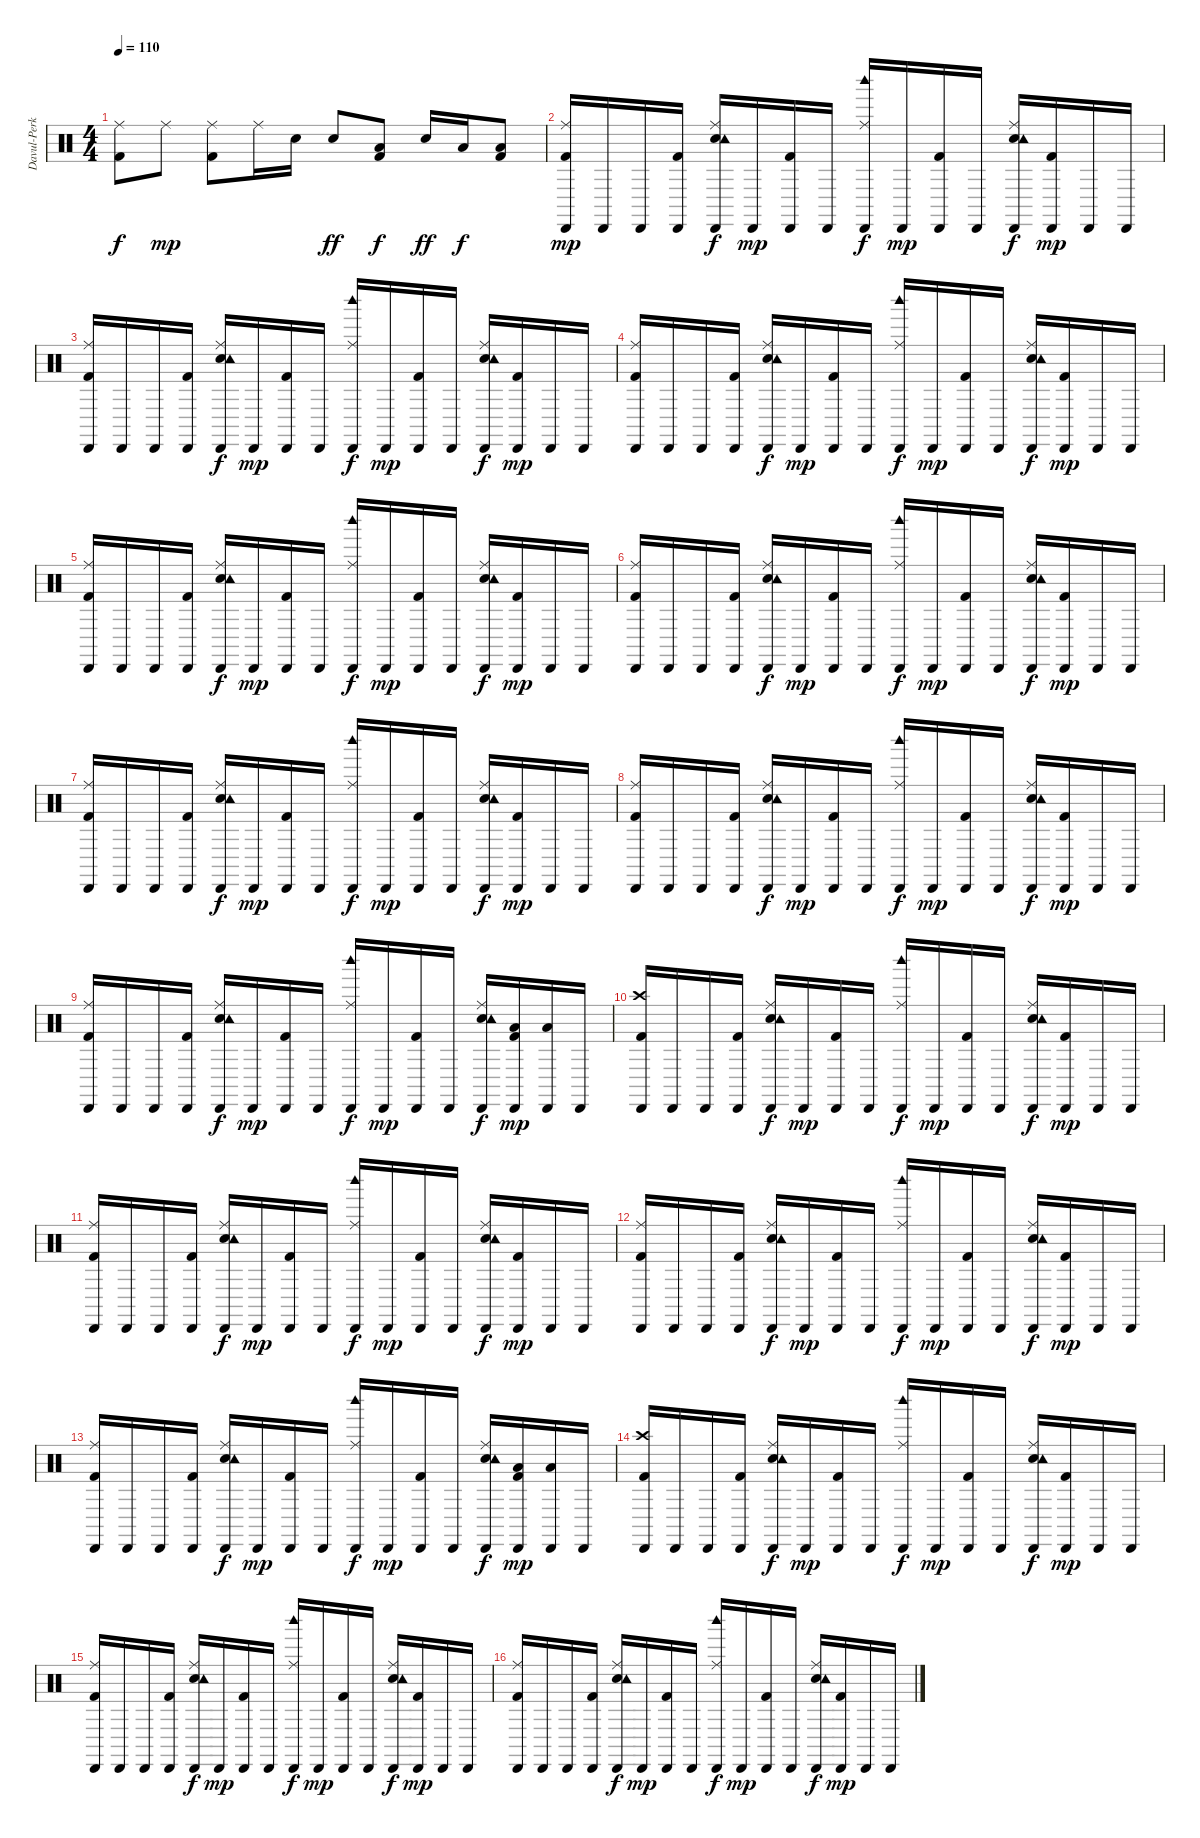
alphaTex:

\track ("Davul-Perküsyon" "Davul-Perk") {instrument percussion}
\staff {score}
\articulation defaults
\ts (4 4)
\tempo 110
\clef neutral
\ks c
("Ride (middle)" "Kick (hit) 2").8{dy f} "Ride (middle)".8{dy mp} ("Ride (middle)" "Kick (hit) 2").8 "Ride (middle)".16 "Electric Snare (hit)".16 "Electric Snare (hit)".8{dy ff} ("Low Tom (hit)" "Kick (hit) 2").8{dy f} "Electric Snare (hit)".16{dy ff} "Low Tom (hit)".16{dy f} ("Low Tom (hit)" "Kick (hit) 2").8 |
("Ride (middle)" "Cabasa (hit)" "Kick (hit) 2").16{dy mp} "Cabasa (hit)".16 "Cabasa (hit)".16 ("Cabasa (hit)" "Kick (hit) 2").16 ("Electric Snare (hit)" "Ride (middle)" "Tambourine (hit)" "Cabasa (hit)").16{dy f} "Cabasa (hit)".16{dy mp} ("Cabasa (hit)" "Kick (hit) 2").16 "Cabasa (hit)".16 ("Ride (middle)" "Woodblock high (hit)" "Cabasa (hit)").16{dy f} "Cabasa (hit)".16{dy mp} ("Cabasa (hit)" "Kick (hit) 2").16 "Cabasa (hit)".16 ("Electric Snare (hit)" "Ride (middle)" "Tambourine (hit)" "Cabasa (hit)").16{dy f} ("Cabasa (hit)" "Kick (hit) 2").16{dy mp} "Cabasa (hit)".16 "Cabasa (hit)".16 |
("Ride (middle)" "Cabasa (hit)" "Kick (hit) 2").16 "Cabasa (hit)".16 "Cabasa (hit)".16 ("Cabasa (hit)" "Kick (hit) 2").16 ("Electric Snare (hit)" "Ride (middle)" "Tambourine (hit)" "Cabasa (hit)").16{dy f} "Cabasa (hit)".16{dy mp} ("Cabasa (hit)" "Kick (hit) 2").16 "Cabasa (hit)".16 ("Ride (middle)" "Woodblock high (hit)" "Cabasa (hit)").16{dy f} "Cabasa (hit)".16{dy mp} ("Cabasa (hit)" "Kick (hit) 2").16 "Cabasa (hit)".16 ("Electric Snare (hit)" "Ride (middle)" "Tambourine (hit)" "Cabasa (hit)").16{dy f} ("Cabasa (hit)" "Kick (hit) 2").16{dy mp} "Cabasa (hit)".16 "Cabasa (hit)".16 |
("Ride (middle)" "Cabasa (hit)" "Kick (hit) 2").16 "Cabasa (hit)".16 "Cabasa (hit)".16 ("Cabasa (hit)" "Kick (hit) 2").16 ("Electric Snare (hit)" "Ride (middle)" "Tambourine (hit)" "Cabasa (hit)").16{dy f} "Cabasa (hit)".16{dy mp} ("Cabasa (hit)" "Kick (hit) 2").16 "Cabasa (hit)".16 ("Ride (middle)" "Woodblock high (hit)" "Cabasa (hit)").16{dy f} "Cabasa (hit)".16{dy mp} ("Cabasa (hit)" "Kick (hit) 2").16 "Cabasa (hit)".16 ("Electric Snare (hit)" "Ride (middle)" "Tambourine (hit)" "Cabasa (hit)").16{dy f} ("Cabasa (hit)" "Kick (hit) 2").16{dy mp} "Cabasa (hit)".16 "Cabasa (hit)".16 |
("Ride (middle)" "Cabasa (hit)" "Kick (hit) 2").16 "Cabasa (hit)".16 "Cabasa (hit)".16 ("Cabasa (hit)" "Kick (hit) 2").16 ("Electric Snare (hit)" "Ride (middle)" "Tambourine (hit)" "Cabasa (hit)").16{dy f} "Cabasa (hit)".16{dy mp} ("Cabasa (hit)" "Kick (hit) 2").16 "Cabasa (hit)".16 ("Ride (middle)" "Woodblock high (hit)" "Cabasa (hit)").16{dy f} "Cabasa (hit)".16{dy mp} ("Cabasa (hit)" "Kick (hit) 2").16 "Cabasa (hit)".16 ("Electric Snare (hit)" "Ride (middle)" "Tambourine (hit)" "Cabasa (hit)").16{dy f} ("Cabasa (hit)" "Kick (hit) 2").16{dy mp} "Cabasa (hit)".16 "Cabasa (hit)".16 |
("Ride (middle)" "Cabasa (hit)" "Kick (hit) 2").16 "Cabasa (hit)".16 "Cabasa (hit)".16 ("Cabasa (hit)" "Kick (hit) 2").16 ("Electric Snare (hit)" "Ride (middle)" "Tambourine (hit)" "Cabasa (hit)").16{dy f} "Cabasa (hit)".16{dy mp} ("Cabasa (hit)" "Kick (hit) 2").16 "Cabasa (hit)".16 ("Ride (middle)" "Woodblock high (hit)" "Cabasa (hit)").16{dy f} "Cabasa (hit)".16{dy mp} ("Cabasa (hit)" "Kick (hit) 2").16 "Cabasa (hit)".16 ("Electric Snare (hit)" "Ride (middle)" "Tambourine (hit)" "Cabasa (hit)").16{dy f} ("Cabasa (hit)" "Kick (hit) 2").16{dy mp} "Cabasa (hit)".16 "Cabasa (hit)".16 |
("Ride (middle)" "Cabasa (hit)" "Kick (hit) 2").16 "Cabasa (hit)".16 "Cabasa (hit)".16 ("Cabasa (hit)" "Kick (hit) 2").16 ("Electric Snare (hit)" "Ride (middle)" "Tambourine (hit)" "Cabasa (hit)").16{dy f} "Cabasa (hit)".16{dy mp} ("Cabasa (hit)" "Kick (hit) 2").16 "Cabasa (hit)".16 ("Ride (middle)" "Woodblock high (hit)" "Cabasa (hit)").16{dy f} "Cabasa (hit)".16{dy mp} ("Cabasa (hit)" "Kick (hit) 2").16 "Cabasa (hit)".16 ("Electric Snare (hit)" "Ride (middle)" "Tambourine (hit)" "Cabasa (hit)").16{dy f} ("Cabasa (hit)" "Kick (hit) 2").16{dy mp} "Cabasa (hit)".16 "Cabasa (hit)".16 |
("Ride (middle)" "Cabasa (hit)" "Kick (hit) 2").16 "Cabasa (hit)".16 "Cabasa (hit)".16 ("Cabasa (hit)" "Kick (hit) 2").16 ("Electric Snare (hit)" "Ride (middle)" "Tambourine (hit)" "Cabasa (hit)").16{dy f} "Cabasa (hit)".16{dy mp} ("Cabasa (hit)" "Kick (hit) 2").16 "Cabasa (hit)".16 ("Ride (middle)" "Woodblock high (hit)" "Cabasa (hit)").16{dy f} "Cabasa (hit)".16{dy mp} ("Cabasa (hit)" "Kick (hit) 2").16 "Cabasa (hit)".16 ("Electric Snare (hit)" "Ride (middle)" "Tambourine (hit)" "Cabasa (hit)").16{dy f} ("Cabasa (hit)" "Kick (hit) 2").16{dy mp} "Cabasa (hit)".16 "Cabasa (hit)".16 |
("Ride (middle)" "Cabasa (hit)" "Kick (hit) 2").16 "Cabasa (hit)".16 "Cabasa (hit)".16 ("Cabasa (hit)" "Kick (hit) 2").16 ("Electric Snare (hit)" "Ride (middle)" "Tambourine (hit)" "Cabasa (hit)").16{dy f} "Cabasa (hit)".16{dy mp} ("Cabasa (hit)" "Kick (hit) 2").16 "Cabasa (hit)".16 ("Ride (middle)" "Woodblock high (hit)" "Cabasa (hit)").16{dy f} "Cabasa (hit)".16{dy mp} ("Cabasa (hit)" "Kick (hit) 2").16 "Cabasa (hit)".16 ("Electric Snare (hit)" "Ride (middle)" "Tambourine (hit)" "Cabasa (hit)").16{dy f} ("Low Tom (hit)" "Cabasa (hit)" "Kick (hit) 2").16{dy mp} ("Low Tom (hit)" "Cabasa (hit)").16 "Cabasa (hit)".16 |
("Crash high (hit)" "Cabasa (hit)" "Kick (hit) 2").16 "Cabasa (hit)".16 "Cabasa (hit)".16 ("Cabasa (hit)" "Kick (hit) 2").16 ("Electric Snare (hit)" "Ride (middle)" "Tambourine (hit)" "Cabasa (hit)").16{dy f} "Cabasa (hit)".16{dy mp} ("Cabasa (hit)" "Kick (hit) 2").16 "Cabasa (hit)".16 ("Ride (middle)" "Woodblock high (hit)" "Cabasa (hit)").16{dy f} "Cabasa (hit)".16{dy mp} ("Cabasa (hit)" "Kick (hit) 2").16 "Cabasa (hit)".16 ("Electric Snare (hit)" "Ride (middle)" "Tambourine (hit)" "Cabasa (hit)").16{dy f} ("Cabasa (hit)" "Kick (hit) 2").16{dy mp} "Cabasa (hit)".16 "Cabasa (hit)".16 |
("Ride (middle)" "Cabasa (hit)" "Kick (hit) 2").16 "Cabasa (hit)".16 "Cabasa (hit)".16 ("Cabasa (hit)" "Kick (hit) 2").16 ("Electric Snare (hit)" "Ride (middle)" "Tambourine (hit)" "Cabasa (hit)").16{dy f} "Cabasa (hit)".16{dy mp} ("Cabasa (hit)" "Kick (hit) 2").16 "Cabasa (hit)".16 ("Ride (middle)" "Woodblock high (hit)" "Cabasa (hit)").16{dy f} "Cabasa (hit)".16{dy mp} ("Cabasa (hit)" "Kick (hit) 2").16 "Cabasa (hit)".16 ("Electric Snare (hit)" "Ride (middle)" "Tambourine (hit)" "Cabasa (hit)").16{dy f} ("Cabasa (hit)" "Kick (hit) 2").16{dy mp} "Cabasa (hit)".16 "Cabasa (hit)".16 |
("Ride (middle)" "Cabasa (hit)" "Kick (hit) 2").16 "Cabasa (hit)".16 "Cabasa (hit)".16 ("Cabasa (hit)" "Kick (hit) 2").16 ("Electric Snare (hit)" "Ride (middle)" "Tambourine (hit)" "Cabasa (hit)").16{dy f} "Cabasa (hit)".16{dy mp} ("Cabasa (hit)" "Kick (hit) 2").16 "Cabasa (hit)".16 ("Ride (middle)" "Woodblock high (hit)" "Cabasa (hit)").16{dy f} "Cabasa (hit)".16{dy mp} ("Cabasa (hit)" "Kick (hit) 2").16 "Cabasa (hit)".16 ("Electric Snare (hit)" "Ride (middle)" "Tambourine (hit)" "Cabasa (hit)").16{dy f} ("Cabasa (hit)" "Kick (hit) 2").16{dy mp} "Cabasa (hit)".16 "Cabasa (hit)".16 |
("Ride (middle)" "Cabasa (hit)" "Kick (hit) 2").16 "Cabasa (hit)".16 "Cabasa (hit)".16 ("Cabasa (hit)" "Kick (hit) 2").16 ("Electric Snare (hit)" "Ride (middle)" "Tambourine (hit)" "Cabasa (hit)").16{dy f} "Cabasa (hit)".16{dy mp} ("Cabasa (hit)" "Kick (hit) 2").16 "Cabasa (hit)".16 ("Ride (middle)" "Woodblock high (hit)" "Cabasa (hit)").16{dy f} "Cabasa (hit)".16{dy mp} ("Cabasa (hit)" "Kick (hit) 2").16 "Cabasa (hit)".16 ("Electric Snare (hit)" "Ride (middle)" "Tambourine (hit)" "Cabasa (hit)").16{dy f} ("Low Tom (hit)" "Cabasa (hit)" "Kick (hit) 2").16{dy mp} ("Low Tom (hit)" "Cabasa (hit)").16 "Cabasa (hit)".16 |
("Crash high (hit)" "Cabasa (hit)" "Kick (hit) 2").16 "Cabasa (hit)".16 "Cabasa (hit)".16 ("Cabasa (hit)" "Kick (hit) 2").16 ("Electric Snare (hit)" "Ride (middle)" "Tambourine (hit)" "Cabasa (hit)").16{dy f} "Cabasa (hit)".16{dy mp} ("Cabasa (hit)" "Kick (hit) 2").16 "Cabasa (hit)".16 ("Ride (middle)" "Woodblock high (hit)" "Cabasa (hit)").16{dy f} "Cabasa (hit)".16{dy mp} ("Cabasa (hit)" "Kick (hit) 2").16 "Cabasa (hit)".16 ("Electric Snare (hit)" "Ride (middle)" "Tambourine (hit)" "Cabasa (hit)").16{dy f} ("Cabasa (hit)" "Kick (hit) 2").16{dy mp} "Cabasa (hit)".16 "Cabasa (hit)".16 |
("Ride (middle)" "Cabasa (hit)" "Kick (hit) 2").16 "Cabasa (hit)".16 "Cabasa (hit)".16 ("Cabasa (hit)" "Kick (hit) 2").16 ("Electric Snare (hit)" "Ride (middle)" "Tambourine (hit)" "Cabasa (hit)").16{dy f} "Cabasa (hit)".16{dy mp} ("Cabasa (hit)" "Kick (hit) 2").16 "Cabasa (hit)".16 ("Ride (middle)" "Woodblock high (hit)" "Cabasa (hit)").16{dy f} "Cabasa (hit)".16{dy mp} ("Cabasa (hit)" "Kick (hit) 2").16 "Cabasa (hit)".16 ("Electric Snare (hit)" "Ride (middle)" "Tambourine (hit)" "Cabasa (hit)").16{dy f} ("Cabasa (hit)" "Kick (hit) 2").16{dy mp} "Cabasa (hit)".16 "Cabasa (hit)".16 |
("Ride (middle)" "Cabasa (hit)" "Kick (hit) 2").16 "Cabasa (hit)".16 "Cabasa (hit)".16 ("Cabasa (hit)" "Kick (hit) 2").16 ("Electric Snare (hit)" "Ride (middle)" "Tambourine (hit)" "Cabasa (hit)").16{dy f} "Cabasa (hit)".16{dy mp} ("Cabasa (hit)" "Kick (hit) 2").16 "Cabasa (hit)".16 ("Ride (middle)" "Woodblock high (hit)" "Cabasa (hit)").16{dy f} "Cabasa (hit)".16{dy mp} ("Cabasa (hit)" "Kick (hit) 2").16 "Cabasa (hit)".16 ("Electric Snare (hit)" "Ride (middle)" "Tambourine (hit)" "Cabasa (hit)").16{dy f} ("Cabasa (hit)" "Kick (hit) 2").16{dy mp} "Cabasa (hit)".16 "Cabasa (hit)".16
